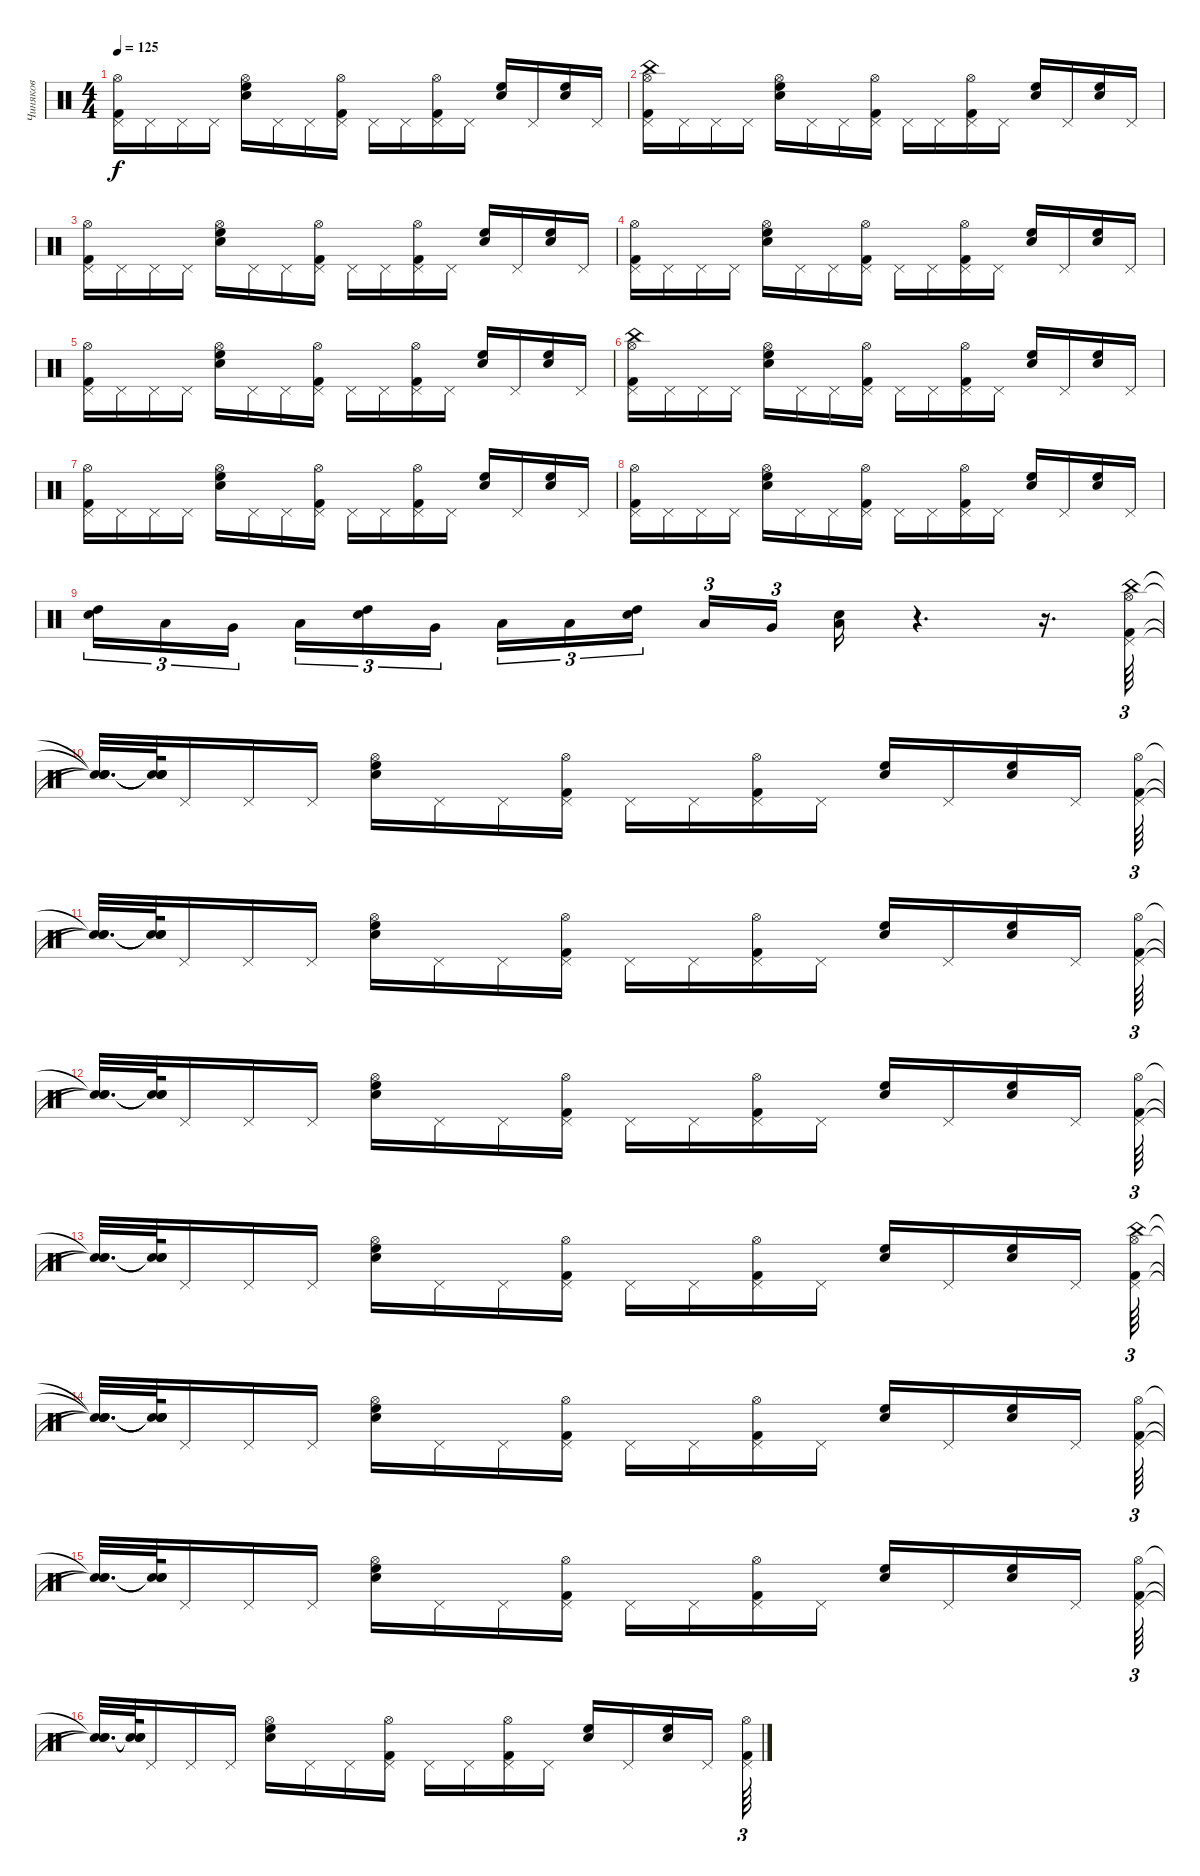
\track ("Чиняков" "Чиняков") {instrument percussion}
\staff {score}
\articulation defaults
\ts (4 4)
\tempo 125
\clef neutral
\ks c
("Pedal Hi-Hat (hit)" "Kick (hit) 2" "Hi-Hat (open)").16{dy f} "Pedal Hi-Hat (hit)".16 "Pedal Hi-Hat (hit)".16 "Pedal Hi-Hat (hit)".16 ("Electric Snare (hit)" "High Floor Tom (hit)" "Hi-Hat (open)").16 "Pedal Hi-Hat (hit)".16 "Pedal Hi-Hat (hit)".16 ("Pedal Hi-Hat (hit)" "Kick (hit) 2" "Hi-Hat (open)").16 "Pedal Hi-Hat (hit)".16 "Pedal Hi-Hat (hit)".16 ("Pedal Hi-Hat (hit)" "Kick (hit) 2" "Hi-Hat (open)").16 "Pedal Hi-Hat (hit)".16 ("High Floor Tom (hit)" "Electric Snare (hit)").16 "Pedal Hi-Hat (hit)".16 ("High Floor Tom (hit)" "Electric Snare (hit)").16 "Pedal Hi-Hat (hit)".16 |
("Pedal Hi-Hat (hit)" "Kick (hit) 2" "Hi-Hat (open)" "China (hit)").16 "Pedal Hi-Hat (hit)".16 "Pedal Hi-Hat (hit)".16 "Pedal Hi-Hat (hit)".16 ("Electric Snare (hit)" "High Floor Tom (hit)" "Hi-Hat (open)").16 "Pedal Hi-Hat (hit)".16 "Pedal Hi-Hat (hit)".16 ("Pedal Hi-Hat (hit)" "Kick (hit) 2" "Hi-Hat (open)").16 "Pedal Hi-Hat (hit)".16 "Pedal Hi-Hat (hit)".16 ("Pedal Hi-Hat (hit)" "Kick (hit) 2" "Hi-Hat (open)").16 "Pedal Hi-Hat (hit)".16 ("High Floor Tom (hit)" "Electric Snare (hit)").16 "Pedal Hi-Hat (hit)".16 ("High Floor Tom (hit)" "Electric Snare (hit)").16 "Pedal Hi-Hat (hit)".16 |
("Pedal Hi-Hat (hit)" "Kick (hit) 2" "Hi-Hat (open)").16 "Pedal Hi-Hat (hit)".16 "Pedal Hi-Hat (hit)".16 "Pedal Hi-Hat (hit)".16 ("Electric Snare (hit)" "High Floor Tom (hit)" "Hi-Hat (open)").16 "Pedal Hi-Hat (hit)".16 "Pedal Hi-Hat (hit)".16 ("Pedal Hi-Hat (hit)" "Kick (hit) 2" "Hi-Hat (open)").16 "Pedal Hi-Hat (hit)".16 "Pedal Hi-Hat (hit)".16 ("Pedal Hi-Hat (hit)" "Kick (hit) 2" "Hi-Hat (open)").16 "Pedal Hi-Hat (hit)".16 ("High Floor Tom (hit)" "Electric Snare (hit)").16 "Pedal Hi-Hat (hit)".16 ("High Floor Tom (hit)" "Electric Snare (hit)").16 "Pedal Hi-Hat (hit)".16 |
("Pedal Hi-Hat (hit)" "Kick (hit) 2" "Hi-Hat (open)").16 "Pedal Hi-Hat (hit)".16 "Pedal Hi-Hat (hit)".16 "Pedal Hi-Hat (hit)".16 ("Electric Snare (hit)" "High Floor Tom (hit)" "Hi-Hat (open)").16 "Pedal Hi-Hat (hit)".16 "Pedal Hi-Hat (hit)".16 ("Pedal Hi-Hat (hit)" "Kick (hit) 2" "Hi-Hat (open)").16 "Pedal Hi-Hat (hit)".16 "Pedal Hi-Hat (hit)".16 ("Pedal Hi-Hat (hit)" "Kick (hit) 2" "Hi-Hat (open)").16 "Pedal Hi-Hat (hit)".16 ("High Floor Tom (hit)" "Electric Snare (hit)").16 "Pedal Hi-Hat (hit)".16 ("High Floor Tom (hit)" "Electric Snare (hit)").16 "Pedal Hi-Hat (hit)".16 |
("Pedal Hi-Hat (hit)" "Kick (hit) 2" "Hi-Hat (open)").16 "Pedal Hi-Hat (hit)".16 "Pedal Hi-Hat (hit)".16 "Pedal Hi-Hat (hit)".16 ("Electric Snare (hit)" "High Floor Tom (hit)" "Hi-Hat (open)").16 "Pedal Hi-Hat (hit)".16 "Pedal Hi-Hat (hit)".16 ("Pedal Hi-Hat (hit)" "Kick (hit) 2" "Hi-Hat (open)").16 "Pedal Hi-Hat (hit)".16 "Pedal Hi-Hat (hit)".16 ("Pedal Hi-Hat (hit)" "Kick (hit) 2" "Hi-Hat (open)").16 "Pedal Hi-Hat (hit)".16 ("High Floor Tom (hit)" "Electric Snare (hit)").16 "Pedal Hi-Hat (hit)".16 ("High Floor Tom (hit)" "Electric Snare (hit)").16 "Pedal Hi-Hat (hit)".16 |
("Pedal Hi-Hat (hit)" "Kick (hit) 2" "Hi-Hat (open)" "China (hit)").16 "Pedal Hi-Hat (hit)".16 "Pedal Hi-Hat (hit)".16 "Pedal Hi-Hat (hit)".16 ("Electric Snare (hit)" "High Floor Tom (hit)" "Hi-Hat (open)").16 "Pedal Hi-Hat (hit)".16 "Pedal Hi-Hat (hit)".16 ("Pedal Hi-Hat (hit)" "Kick (hit) 2" "Hi-Hat (open)").16 "Pedal Hi-Hat (hit)".16 "Pedal Hi-Hat (hit)".16 ("Pedal Hi-Hat (hit)" "Kick (hit) 2" "Hi-Hat (open)").16 "Pedal Hi-Hat (hit)".16 ("High Floor Tom (hit)" "Electric Snare (hit)").16 "Pedal Hi-Hat (hit)".16 ("High Floor Tom (hit)" "Electric Snare (hit)").16 "Pedal Hi-Hat (hit)".16 |
("Pedal Hi-Hat (hit)" "Kick (hit) 2" "Hi-Hat (open)").16 "Pedal Hi-Hat (hit)".16 "Pedal Hi-Hat (hit)".16 "Pedal Hi-Hat (hit)".16 ("Electric Snare (hit)" "High Floor Tom (hit)" "Hi-Hat (open)").16 "Pedal Hi-Hat (hit)".16 "Pedal Hi-Hat (hit)".16 ("Pedal Hi-Hat (hit)" "Kick (hit) 2" "Hi-Hat (open)").16 "Pedal Hi-Hat (hit)".16 "Pedal Hi-Hat (hit)".16 ("Pedal Hi-Hat (hit)" "Kick (hit) 2" "Hi-Hat (open)").16 "Pedal Hi-Hat (hit)".16 ("High Floor Tom (hit)" "Electric Snare (hit)").16 "Pedal Hi-Hat (hit)".16 ("High Floor Tom (hit)" "Electric Snare (hit)").16 "Pedal Hi-Hat (hit)".16 |
("Pedal Hi-Hat (hit)" "Kick (hit) 2" "Hi-Hat (open)").16 "Pedal Hi-Hat (hit)".16 "Pedal Hi-Hat (hit)".16 "Pedal Hi-Hat (hit)".16 ("Electric Snare (hit)" "High Floor Tom (hit)" "Hi-Hat (open)").16 "Pedal Hi-Hat (hit)".16 "Pedal Hi-Hat (hit)".16 ("Pedal Hi-Hat (hit)" "Kick (hit) 2" "Hi-Hat (open)").16 "Pedal Hi-Hat (hit)".16 "Pedal Hi-Hat (hit)".16 ("Pedal Hi-Hat (hit)" "Kick (hit) 2" "Hi-Hat (open)").16 "Pedal Hi-Hat (hit)".16 ("High Floor Tom (hit)" "Electric Snare (hit)").16 "Pedal Hi-Hat (hit)".16 ("High Floor Tom (hit)" "Electric Snare (hit)").16 "Pedal Hi-Hat (hit)".16 |
("High Tom (hit)" "Electric Snare (hit)").16{tu (3 2)} "Low Tom (hit)".16{tu (3 2)} "Very Low Tom (hit)".16{tu (3 2) beam splitsecondary} "Low Floor Tom (hit)".16{tu (3 2)} ("High Tom (hit)" "Electric Snare (hit)").16{tu (3 2)} "Very Low Tom (hit)".16{tu (3 2)} "Low Tom (hit)".16{tu (3 2)} "Low Floor Tom (hit)".16{tu (3 2)} ("High Tom (hit)" "Electric Snare (hit)").16{tu (3 2) beam splitsecondary} "Low Tom (hit)".16{tu (3 2)} "Very Low Tom (hit)".16{tu (3 2) beam splitsecondary} ("Low Floor Tom (hit)" "Electric Snare (hit)").16 r.4{d} r.16{d} ("Pedal Hi-Hat (hit)" "Kick (hit) 2" "Hi-Hat (open)" "China (hit)").64{tu (3 2)} |
("Snare (hit)"{t} "Snare (hit)"{t} "Snare (hit)"{t} "Snare (hit)"{t}).32{d} ("Snare (hit)"{t} "Snare (hit)"{t} "Snare (hit)"{t} "Snare (hit)"{t}).64 "Pedal Hi-Hat (hit)".16 "Pedal Hi-Hat (hit)".16 "Pedal Hi-Hat (hit)".16 ("Electric Snare (hit)" "High Floor Tom (hit)" "Hi-Hat (open)").16 "Pedal Hi-Hat (hit)".16 "Pedal Hi-Hat (hit)".16 ("Pedal Hi-Hat (hit)" "Kick (hit) 2" "Hi-Hat (open)").16 "Pedal Hi-Hat (hit)".16 "Pedal Hi-Hat (hit)".16 ("Pedal Hi-Hat (hit)" "Kick (hit) 2" "Hi-Hat (open)").16 "Pedal Hi-Hat (hit)".16 ("High Floor Tom (hit)" "Electric Snare (hit)").16 "Pedal Hi-Hat (hit)".16 ("High Floor Tom (hit)" "Electric Snare (hit)").16 "Pedal Hi-Hat (hit)".16 ("Pedal Hi-Hat (hit)" "Kick (hit) 2" "Hi-Hat (open)").64{tu (3 2)} |
("Snare (hit)"{t} "Snare (hit)"{t} "Snare (hit)"{t}).32{d} ("Snare (hit)"{t} "Snare (hit)"{t} "Snare (hit)"{t}).64 "Pedal Hi-Hat (hit)".16 "Pedal Hi-Hat (hit)".16 "Pedal Hi-Hat (hit)".16 ("Electric Snare (hit)" "High Floor Tom (hit)" "Hi-Hat (open)").16 "Pedal Hi-Hat (hit)".16 "Pedal Hi-Hat (hit)".16 ("Pedal Hi-Hat (hit)" "Kick (hit) 2" "Hi-Hat (open)").16 "Pedal Hi-Hat (hit)".16 "Pedal Hi-Hat (hit)".16 ("Pedal Hi-Hat (hit)" "Kick (hit) 2" "Hi-Hat (open)").16 "Pedal Hi-Hat (hit)".16 ("High Floor Tom (hit)" "Electric Snare (hit)").16 "Pedal Hi-Hat (hit)".16 ("High Floor Tom (hit)" "Electric Snare (hit)").16 "Pedal Hi-Hat (hit)".16 ("Pedal Hi-Hat (hit)" "Kick (hit) 2" "Hi-Hat (open)").64{tu (3 2)} |
("Snare (hit)"{t} "Snare (hit)"{t} "Snare (hit)"{t}).32{d} ("Snare (hit)"{t} "Snare (hit)"{t} "Snare (hit)"{t}).64 "Pedal Hi-Hat (hit)".16 "Pedal Hi-Hat (hit)".16 "Pedal Hi-Hat (hit)".16 ("Electric Snare (hit)" "High Floor Tom (hit)" "Hi-Hat (open)").16 "Pedal Hi-Hat (hit)".16 "Pedal Hi-Hat (hit)".16 ("Pedal Hi-Hat (hit)" "Kick (hit) 2" "Hi-Hat (open)").16 "Pedal Hi-Hat (hit)".16 "Pedal Hi-Hat (hit)".16 ("Pedal Hi-Hat (hit)" "Kick (hit) 2" "Hi-Hat (open)").16 "Pedal Hi-Hat (hit)".16 ("High Floor Tom (hit)" "Electric Snare (hit)").16 "Pedal Hi-Hat (hit)".16 ("High Floor Tom (hit)" "Electric Snare (hit)").16 "Pedal Hi-Hat (hit)".16 ("Pedal Hi-Hat (hit)" "Kick (hit) 2" "Hi-Hat (open)").64{tu (3 2)} |
("Snare (hit)"{t} "Snare (hit)"{t} "Snare (hit)"{t}).32{d} ("Snare (hit)"{t} "Snare (hit)"{t} "Snare (hit)"{t}).64 "Pedal Hi-Hat (hit)".16 "Pedal Hi-Hat (hit)".16 "Pedal Hi-Hat (hit)".16 ("Electric Snare (hit)" "High Floor Tom (hit)" "Hi-Hat (open)").16 "Pedal Hi-Hat (hit)".16 "Pedal Hi-Hat (hit)".16 ("Pedal Hi-Hat (hit)" "Kick (hit) 2" "Hi-Hat (open)").16 "Pedal Hi-Hat (hit)".16 "Pedal Hi-Hat (hit)".16 ("Pedal Hi-Hat (hit)" "Kick (hit) 2" "Hi-Hat (open)").16 "Pedal Hi-Hat (hit)".16 ("High Floor Tom (hit)" "Electric Snare (hit)").16 "Pedal Hi-Hat (hit)".16 ("High Floor Tom (hit)" "Electric Snare (hit)").16 "Pedal Hi-Hat (hit)".16 ("Pedal Hi-Hat (hit)" "Kick (hit) 2" "Hi-Hat (open)" "China (hit)").64{tu (3 2)} |
("Snare (hit)"{t} "Snare (hit)"{t} "Snare (hit)"{t} "Snare (hit)"{t}).32{d} ("Snare (hit)"{t} "Snare (hit)"{t} "Snare (hit)"{t} "Snare (hit)"{t}).64 "Pedal Hi-Hat (hit)".16 "Pedal Hi-Hat (hit)".16 "Pedal Hi-Hat (hit)".16 ("Electric Snare (hit)" "High Floor Tom (hit)" "Hi-Hat (open)").16 "Pedal Hi-Hat (hit)".16 "Pedal Hi-Hat (hit)".16 ("Pedal Hi-Hat (hit)" "Kick (hit) 2" "Hi-Hat (open)").16 "Pedal Hi-Hat (hit)".16 "Pedal Hi-Hat (hit)".16 ("Pedal Hi-Hat (hit)" "Kick (hit) 2" "Hi-Hat (open)").16 "Pedal Hi-Hat (hit)".16 ("High Floor Tom (hit)" "Electric Snare (hit)").16 "Pedal Hi-Hat (hit)".16 ("High Floor Tom (hit)" "Electric Snare (hit)").16 "Pedal Hi-Hat (hit)".16 ("Pedal Hi-Hat (hit)" "Kick (hit) 2" "Hi-Hat (open)").64{tu (3 2)} |
("Snare (hit)"{t} "Snare (hit)"{t} "Snare (hit)"{t}).32{d} ("Snare (hit)"{t} "Snare (hit)"{t} "Snare (hit)"{t}).64 "Pedal Hi-Hat (hit)".16 "Pedal Hi-Hat (hit)".16 "Pedal Hi-Hat (hit)".16 ("Electric Snare (hit)" "High Floor Tom (hit)" "Hi-Hat (open)").16 "Pedal Hi-Hat (hit)".16 "Pedal Hi-Hat (hit)".16 ("Pedal Hi-Hat (hit)" "Kick (hit) 2" "Hi-Hat (open)").16 "Pedal Hi-Hat (hit)".16 "Pedal Hi-Hat (hit)".16 ("Pedal Hi-Hat (hit)" "Kick (hit) 2" "Hi-Hat (open)").16 "Pedal Hi-Hat (hit)".16 ("High Floor Tom (hit)" "Electric Snare (hit)").16 "Pedal Hi-Hat (hit)".16 ("High Floor Tom (hit)" "Electric Snare (hit)").16 "Pedal Hi-Hat (hit)".16 ("Pedal Hi-Hat (hit)" "Kick (hit) 2" "Hi-Hat (open)").64{tu (3 2)} |
("Snare (hit)"{t} "Snare (hit)"{t} "Snare (hit)"{t}).32{d} ("Snare (hit)"{t} "Snare (hit)"{t} "Snare (hit)"{t}).64 "Pedal Hi-Hat (hit)".16 "Pedal Hi-Hat (hit)".16 "Pedal Hi-Hat (hit)".16 ("Electric Snare (hit)" "High Floor Tom (hit)" "Hi-Hat (open)").16 "Pedal Hi-Hat (hit)".16 "Pedal Hi-Hat (hit)".16 ("Pedal Hi-Hat (hit)" "Kick (hit) 2" "Hi-Hat (open)").16 "Pedal Hi-Hat (hit)".16 "Pedal Hi-Hat (hit)".16 ("Pedal Hi-Hat (hit)" "Kick (hit) 2" "Hi-Hat (open)").16 "Pedal Hi-Hat (hit)".16 ("High Floor Tom (hit)" "Electric Snare (hit)").16 "Pedal Hi-Hat (hit)".16 ("High Floor Tom (hit)" "Electric Snare (hit)").16 "Pedal Hi-Hat (hit)".16 ("Pedal Hi-Hat (hit)" "Kick (hit) 2" "Hi-Hat (open)").64{tu (3 2)}
